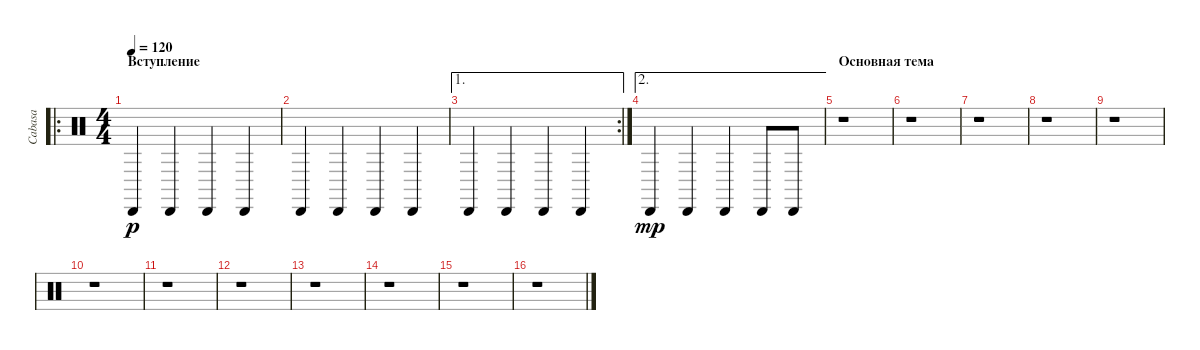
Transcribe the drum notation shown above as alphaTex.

\track ("Cabasa" "Cabasa") {instrument percussion}
\staff {score}
\articulation defaults
\ro
\ts (4 4)
\section ("" "Вступление")
\tempo 120
\clef neutral
\ks c "Cabasa (hit)".4{dy p} "Cabasa (hit)".4 "Cabasa (hit)".4 "Cabasa (hit)".4
|
"Cabasa (hit)".4 "Cabasa (hit)".4 "Cabasa (hit)".4 "Cabasa (hit)".4 |
\ae 1
\rc 2 "Cabasa (hit)".4 "Cabasa (hit)".4 "Cabasa (hit)".4 "Cabasa (hit)".4
|
\ae 2 "Cabasa (hit)".4{dy mp} "Cabasa (hit)".4 "Cabasa (hit)".4 "Cabasa (hit)".8 "Cabasa (hit)".8
|
\section ("" "Основная тема")
r.1 |
r.1 |
r.1 |
r.1 |
r.1 |
r.1 |
r.1 |
r.1 |
r.1 |
r.1 |
r.1 |
r.1
